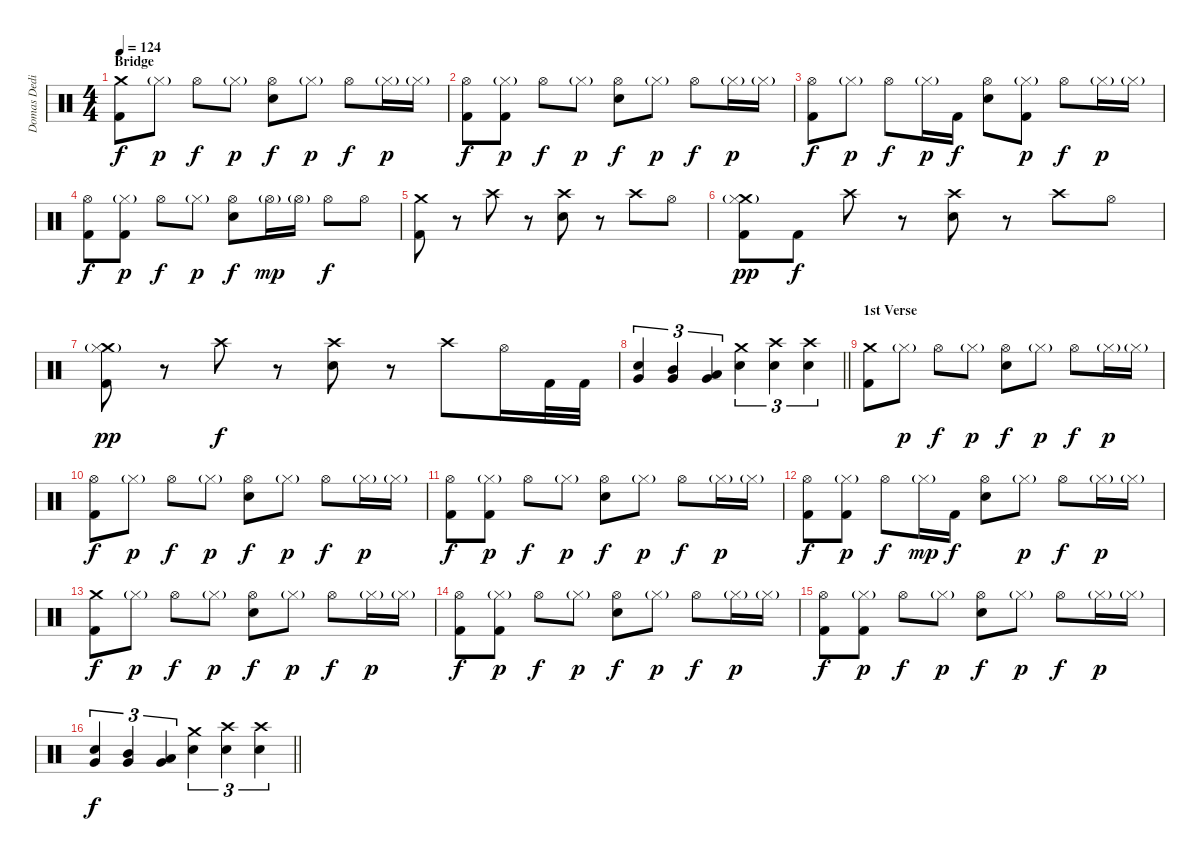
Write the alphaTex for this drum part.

\track ("Domas Dedinas" "Domas Dedi") {instrument percussion}
\staff {score}
\articulation defaults
\ts (4 4)
\section ("" "Bridge")
\tempo 124
\clef neutral
\ks c
("Crash medium (hit)" "Kick (hit) 2").8{dy f} "Hi-Hat (closed)"{g}.8{dy p} "Hi-Hat (open)".8{dy f} "Hi-Hat (closed)"{g}.8{dy p} ("Hi-Hat (open)" "Snare (hit) 2").8{dy f} "Hi-Hat (closed)"{g}.8{dy p} "Hi-Hat (open)".8{dy f} "Hi-Hat (closed)"{g}.16{dy p} "Hi-Hat (closed)"{g}.16 |
("Hi-Hat (open)" "Kick (hit) 2").8{dy f} ("Hi-Hat (closed)"{g} "Kick (hit) 2").8{dy p} "Hi-Hat (open)".8{dy f} "Hi-Hat (closed)"{g}.8{dy p} ("Hi-Hat (open)" "Snare (hit) 2").8{dy f} "Hi-Hat (closed)"{g}.8{dy p} "Hi-Hat (open)".8{dy f} "Hi-Hat (closed)"{g}.16{dy p} "Hi-Hat (closed)"{g}.16 |
("Hi-Hat (open)" "Kick (hit) 2").8{dy f} "Hi-Hat (closed)"{g}.8{dy p} "Hi-Hat (open)".8{dy f} "Hi-Hat (closed)"{g}.16{dy p} "Kick (hit) 2".16{dy f} ("Hi-Hat (open)" "Snare (hit) 2").8 ("Hi-Hat (closed)"{g} "Kick (hit) 2").8{dy p} "Hi-Hat (open)".8{dy f} "Hi-Hat (closed)"{g}.16{dy p} "Hi-Hat (closed)"{g}.16 |
("Hi-Hat (open)" "Kick (hit) 2").8{dy f} ("Hi-Hat (closed)"{g} "Kick (hit) 2").8{dy p} "Hi-Hat (open)".8{dy f} "Hi-Hat (closed)"{g}.8{dy p} ("Hi-Hat (open)" "Snare (hit) 2").8{dy f} "Hi-Hat (open)"{g}.16{dy mp} "Hi-Hat (open)"{g}.16 "Hi-Hat (open)".8{dy f} "Hi-Hat (open)".8 |
("Crash medium (hit)" "Kick (hit) 2").8 r.8 "Crash high (hit)".8 r.8 ("Crash high (hit)" "Snare (hit) 2").8 r.8 "Crash high (hit)".8 "Hi-Hat (open)".8 |
("Crash medium (hit)" "Hi-Hat (closed)"{g} "Kick (hit) 2").8{dy pp} "Kick (hit) 2".8{dy f} "Crash high (hit)".8 r.8 ("Crash high (hit)" "Snare (hit) 2").8 r.8 "Crash high (hit)".8 "Hi-Hat (open)".8 |
("Crash medium (hit)" "Hi-Hat (closed)"{g} "Kick (hit) 2").8{dy pp} r.8 "Crash high (hit)".8{dy f} r.8 ("Crash high (hit)" "Snare (hit) 2").8 r.8 "Crash high (hit)".8 "Hi-Hat (open)".16 "Kick (hit) 2".32 "Kick (hit) 2".32 |
\barLineRight lightlight
("Very Low Tom (hit)" "Snare (hit) 2").4{tu (3 2)} ("Mid Tom (hit)" "Very Low Tom (hit)").4{tu (3 2)} ("Low Tom (hit)" "Very Low Tom (hit)").4{tu (3 2)} ("Crash medium (hit)" "Snare (hit) 2").4{tu (3 2)} ("Crash high (hit)" "Snare (hit) 2").4{tu (3 2)} ("Crash high (hit)" "Snare (hit) 2").4{tu (3 2)} |
\section ("" "1st Verse")
("Crash medium (hit)" "Kick (hit) 2").8 "Hi-Hat (closed)"{g}.8{dy p} "Hi-Hat (open)".8{dy f} "Hi-Hat (closed)"{g}.8{dy p} ("Hi-Hat (open)" "Snare (hit) 2").8{dy f} "Hi-Hat (closed)"{g}.8{dy p} "Hi-Hat (open)".8{dy f} "Hi-Hat (closed)"{g}.16{dy p} "Hi-Hat (closed)"{g}.16 |
("Hi-Hat (open)" "Kick (hit) 2").8{dy f} "Hi-Hat (closed)"{g}.8{dy p} "Hi-Hat (open)".8{dy f} "Hi-Hat (closed)"{g}.8{dy p} ("Hi-Hat (open)" "Snare (hit) 2").8{dy f} "Hi-Hat (closed)"{g}.8{dy p} "Hi-Hat (open)".8{dy f} "Hi-Hat (closed)"{g}.16{dy p} "Hi-Hat (closed)"{g}.16 |
("Hi-Hat (open)" "Kick (hit) 2").8{dy f} ("Hi-Hat (closed)"{g} "Kick (hit) 2").8{dy p} "Hi-Hat (open)".8{dy f} "Hi-Hat (closed)"{g}.8{dy p} ("Hi-Hat (open)" "Snare (hit) 2").8{dy f} "Hi-Hat (closed)"{g}.8{dy p} "Hi-Hat (open)".8{dy f} "Hi-Hat (closed)"{g}.16{dy p} "Hi-Hat (closed)"{g}.16 |
("Hi-Hat (open)" "Kick (hit) 2").8{dy f} ("Hi-Hat (closed)"{g} "Kick (hit) 2").8{dy p} "Hi-Hat (open)".8{dy f} "Hi-Hat (closed)"{g}.16{dy mp} "Kick (hit) 2".16{dy f} ("Hi-Hat (open)" "Snare (hit) 2").8 "Hi-Hat (closed)"{g}.8{dy p} "Hi-Hat (open)".8{dy f} "Hi-Hat (closed)"{g}.16{dy p} "Hi-Hat (closed)"{g}.16 |
("Crash medium (hit)" "Kick (hit) 2").8{dy f} "Hi-Hat (closed)"{g}.8{dy p} "Hi-Hat (open)".8{dy f} "Hi-Hat (closed)"{g}.8{dy p} ("Hi-Hat (open)" "Snare (hit) 2").8{dy f} "Hi-Hat (closed)"{g}.8{dy p} "Hi-Hat (open)".8{dy f} "Hi-Hat (closed)"{g}.16{dy p} "Hi-Hat (closed)"{g}.16 |
("Hi-Hat (open)" "Kick (hit) 2").8{dy f} ("Hi-Hat (closed)"{g} "Kick (hit) 2").8{dy p} "Hi-Hat (open)".8{dy f} "Hi-Hat (closed)"{g}.8{dy p} ("Hi-Hat (open)" "Snare (hit) 2").8{dy f} "Hi-Hat (closed)"{g}.8{dy p} "Hi-Hat (open)".8{dy f} "Hi-Hat (closed)"{g}.16{dy p} "Hi-Hat (closed)"{g}.16 |
("Hi-Hat (open)" "Kick (hit) 2").8{dy f} ("Hi-Hat (closed)"{g} "Kick (hit) 2").8{dy p} "Hi-Hat (open)".8{dy f} "Hi-Hat (closed)"{g}.8{dy p} ("Hi-Hat (open)" "Snare (hit) 2").8{dy f} "Hi-Hat (closed)"{g}.8{dy p} "Hi-Hat (open)".8{dy f} "Hi-Hat (closed)"{g}.16{dy p} "Hi-Hat (closed)"{g}.16 |
\barLineRight lightlight
("Very Low Tom (hit)" "Snare (hit) 2").4{tu (3 2) dy f} ("Mid Tom (hit)" "Very Low Tom (hit)").4{tu (3 2)} ("Low Tom (hit)" "Very Low Tom (hit)").4{tu (3 2)} ("Crash medium (hit)" "Snare (hit) 2").4{tu (3 2)} ("Crash high (hit)" "Snare (hit) 2").4{tu (3 2)} ("Crash high (hit)" "Snare (hit) 2").4{tu (3 2)}
